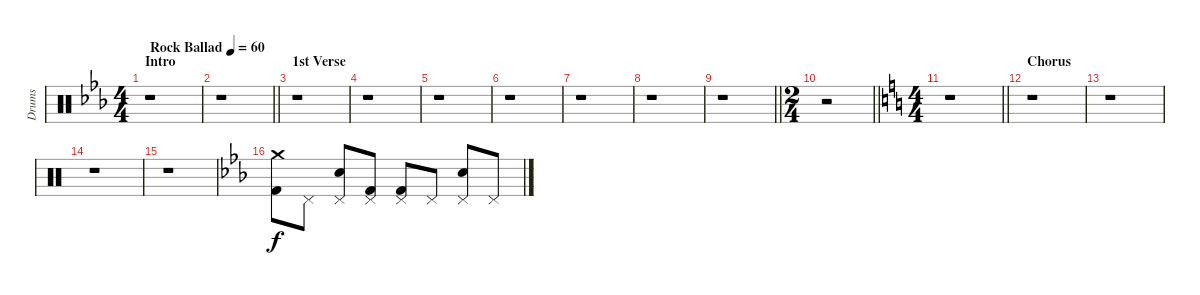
\track ("Drums" "Drums") {instrument percussion}
\staff {score}
\articulation defaults
\ts (4 4)
\section ("" "Intro")
\tempo (60 "Rock Ballad")
\clef neutral
\ks cminor
r.1{dy f} |
\barLineRight lightlight
r.1 |
\section ("" "1st Verse")
r.1 |
r.1 |
r.1 |
r.1 |
r.1 |
r.1 |
\barLineRight lightlight
r.1 |
\ts (2 4)
\barLineRight lightlight
r.2 |
\ts (4 4)
\barLineRight lightlight
\ks c
r.1 |
\section ("" "Chorus")
r.1 |
r.1 |
r.1 |
r.1 |
\ks cminor
("Crash medium (hit)" "Kick (hit) 2").8 "Pedal Hi-Hat (hit)".8 ("Pedal Hi-Hat (hit)" "Snare (hit) 2").8 ("Pedal Hi-Hat (hit)" "Kick (hit) 2").8 ("Pedal Hi-Hat (hit)" "Kick (hit) 2").8 "Pedal Hi-Hat (hit)".8 ("Pedal Hi-Hat (hit)" "Snare (hit) 2").8 "Pedal Hi-Hat (hit)".8
